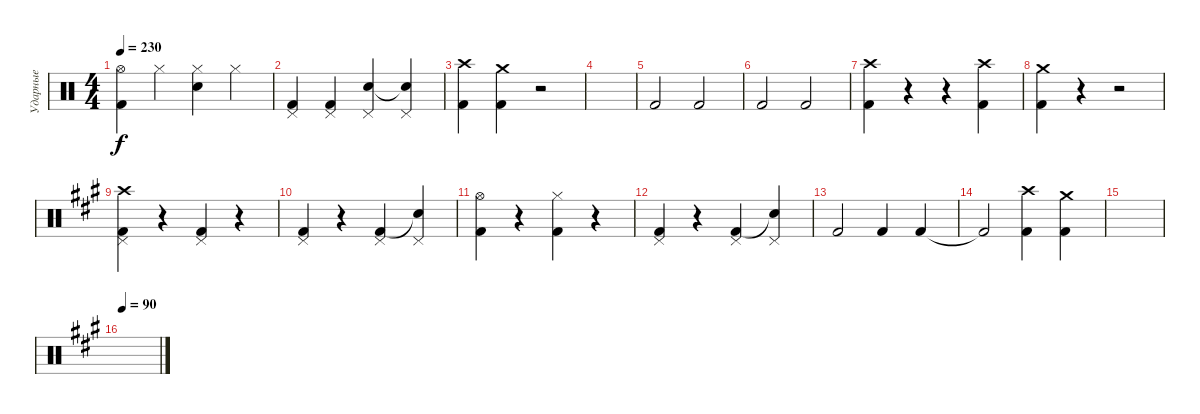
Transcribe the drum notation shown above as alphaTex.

\track ("Ударные" "Ударные") {instrument percussion}
\staff {score}
\articulation defaults
\ts (4 4)
\tempo 230
\clef neutral
\ks c
("Hi-Hat (open)" "Kick (hit) 2").4{dy f} "Hi-Hat (closed)".4 ("Hi-Hat (closed)" "Electric Snare (hit)").4 "Hi-Hat (closed)".4 |
("Pedal Hi-Hat (hit)" "Kick (hit) 2").4 ("Pedal Hi-Hat (hit)" "Kick (hit) 2").4 ("Pedal Hi-Hat (hit)" "Electric Snare (hit)").4 ("Pedal Hi-Hat (hit)" "Electric Snare (hit)"{t}).4 |
("Crash high (hit)" "Kick (hit) 2").4 ("Crash medium (hit)" "Kick (hit) 2").4 r.2 |
|
"Kick (hit) 2".2 "Kick (hit) 2".2 |
"Kick (hit) 2".2 "Kick (hit) 2".2 |
("Crash high (hit)" "Kick (hit) 2").4 r.4 r.4 ("Crash high (hit)" "Kick (hit) 2").4 |
("Crash medium (hit)" "Kick (hit) 2").4 r.4 r.2 |
\ks a
("Pedal Hi-Hat (hit)" "Crash high (hit)" "Kick (hit) 2").4 r.4 ("Pedal Hi-Hat (hit)" "Kick (hit) 2").4 r.4 |
("Pedal Hi-Hat (hit)" "Kick (hit) 2").4 r.4 ("Pedal Hi-Hat (hit)" "Kick (hit) 2").4 ("Pedal Hi-Hat (hit)" "Electric Snare (hit)"{t}).4 |
("Hi-Hat (open)" "Kick (hit) 2").4 r.4 ("Hi-Hat (closed)" "Kick (hit) 2").4 r.4 |
("Pedal Hi-Hat (hit)" "Kick (hit) 2").4 r.4 ("Pedal Hi-Hat (hit)" "Kick (hit) 2").4 ("Pedal Hi-Hat (hit)" "Electric Snare (hit)"{t}).4 |
"Kick (hit) 2".2 "Kick (hit) 2".4 "Kick (hit) 2".4 |
"Kick (hit) 2"{t}.2 ("Crash high (hit)" "Kick (hit) 2").4 ("Crash medium (hit)" "Kick (hit) 2").4 |
|
\tempo 90
